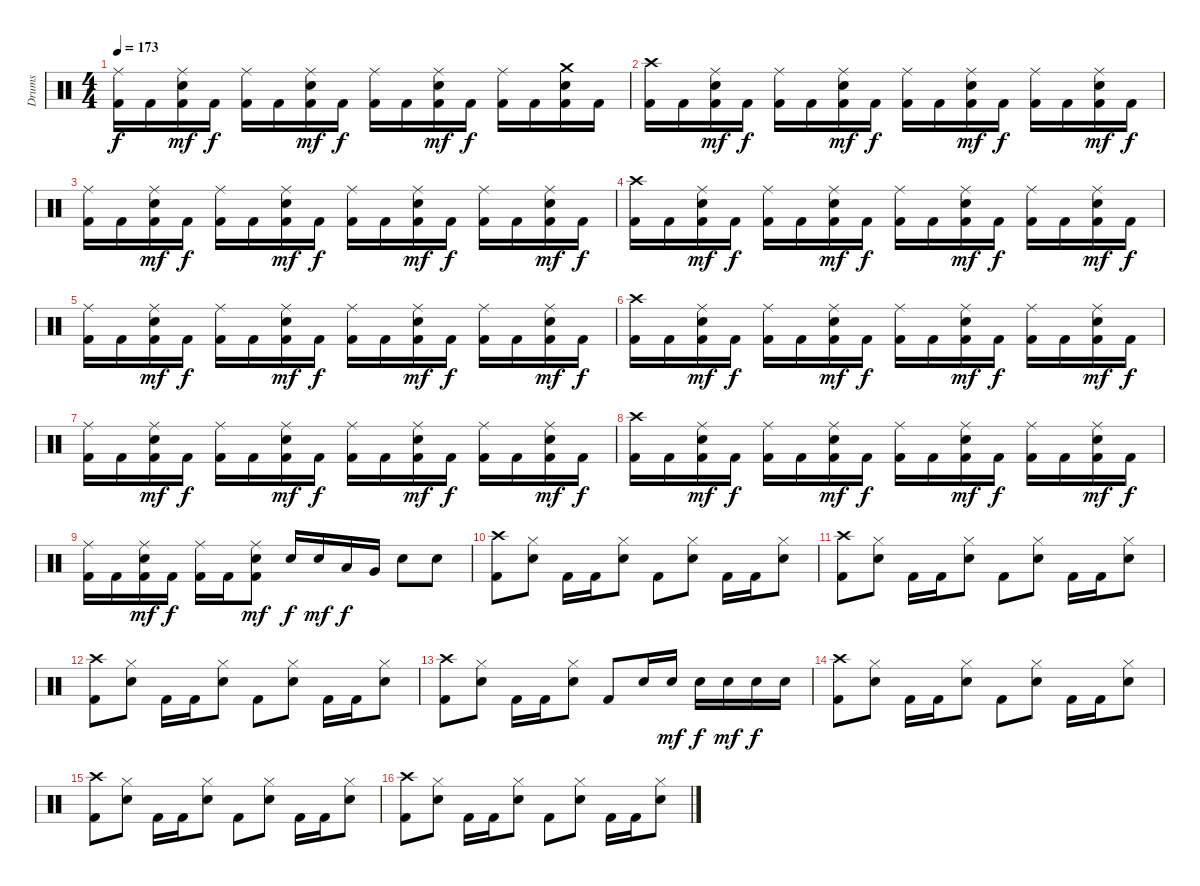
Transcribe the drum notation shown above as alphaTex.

\track ("Drums" "Drums") {instrument percussion}
\staff {score}
\articulation defaults
\ts (4 4)
\tempo 173
\clef neutral
\ks c
("Kick (hit) 2" "Ride (middle)").16{dy f} "Kick (hit) 2".16 ("Kick (hit) 2" "Ride (middle)" "Electric Snare (hit)").16{dy mf} "Kick (hit) 2".16{dy f} ("Kick (hit) 2" "Ride (middle)").16 "Kick (hit) 2".16 ("Kick (hit) 2" "Ride (middle)" "Electric Snare (hit)").16{dy mf} "Kick (hit) 2".16{dy f} ("Kick (hit) 2" "Ride (middle)").16 "Kick (hit) 2".16 ("Kick (hit) 2" "Ride (middle)" "Electric Snare (hit)").16{dy mf} "Kick (hit) 2".16{dy f} ("Kick (hit) 2" "Ride (middle)").16 "Kick (hit) 2".16 ("Kick (hit) 2" "Crash medium (hit)" "Electric Snare (hit)").16 "Kick (hit) 2".16 |
("Kick (hit) 2" "Crash high (hit)").16 "Kick (hit) 2".16 ("Kick (hit) 2" "Ride (middle)" "Electric Snare (hit)").16{dy mf} "Kick (hit) 2".16{dy f} ("Kick (hit) 2" "Ride (middle)").16 "Kick (hit) 2".16 ("Kick (hit) 2" "Ride (middle)" "Electric Snare (hit)").16{dy mf} "Kick (hit) 2".16{dy f} ("Kick (hit) 2" "Ride (middle)").16 "Kick (hit) 2".16 ("Kick (hit) 2" "Ride (middle)" "Electric Snare (hit)").16{dy mf} "Kick (hit) 2".16{dy f} ("Kick (hit) 2" "Ride (middle)").16 "Kick (hit) 2".16 ("Kick (hit) 2" "Ride (middle)" "Electric Snare (hit)").16{dy mf} "Kick (hit) 2".16{dy f} |
("Kick (hit) 2" "Ride (middle)").16 "Kick (hit) 2".16 ("Kick (hit) 2" "Ride (middle)" "Electric Snare (hit)").16{dy mf} "Kick (hit) 2".16{dy f} ("Kick (hit) 2" "Ride (middle)").16 "Kick (hit) 2".16 ("Kick (hit) 2" "Ride (middle)" "Electric Snare (hit)").16{dy mf} "Kick (hit) 2".16{dy f} ("Kick (hit) 2" "Ride (middle)").16 "Kick (hit) 2".16 ("Kick (hit) 2" "Ride (middle)" "Electric Snare (hit)").16{dy mf} "Kick (hit) 2".16{dy f} ("Kick (hit) 2" "Ride (middle)").16 "Kick (hit) 2".16 ("Kick (hit) 2" "Ride (middle)" "Electric Snare (hit)").16{dy mf} "Kick (hit) 2".16{dy f} |
("Kick (hit) 2" "Crash high (hit)").16 "Kick (hit) 2".16 ("Kick (hit) 2" "Ride (middle)" "Electric Snare (hit)").16{dy mf} "Kick (hit) 2".16{dy f} ("Kick (hit) 2" "Ride (middle)").16 "Kick (hit) 2".16 ("Kick (hit) 2" "Ride (middle)" "Electric Snare (hit)").16{dy mf} "Kick (hit) 2".16{dy f} ("Kick (hit) 2" "Ride (middle)").16 "Kick (hit) 2".16 ("Kick (hit) 2" "Ride (middle)" "Electric Snare (hit)").16{dy mf} "Kick (hit) 2".16{dy f} ("Kick (hit) 2" "Ride (middle)").16 "Kick (hit) 2".16 ("Kick (hit) 2" "Ride (middle)" "Electric Snare (hit)").16{dy mf} "Kick (hit) 2".16{dy f} |
("Kick (hit) 2" "Ride (middle)").16 "Kick (hit) 2".16 ("Kick (hit) 2" "Ride (middle)" "Electric Snare (hit)").16{dy mf} "Kick (hit) 2".16{dy f} ("Kick (hit) 2" "Ride (middle)").16 "Kick (hit) 2".16 ("Kick (hit) 2" "Ride (middle)" "Electric Snare (hit)").16{dy mf} "Kick (hit) 2".16{dy f} ("Kick (hit) 2" "Ride (middle)").16 "Kick (hit) 2".16 ("Kick (hit) 2" "Ride (middle)" "Electric Snare (hit)").16{dy mf} "Kick (hit) 2".16{dy f} ("Kick (hit) 2" "Ride (middle)").16 "Kick (hit) 2".16 ("Kick (hit) 2" "Ride (middle)" "Electric Snare (hit)").16{dy mf} "Kick (hit) 2".16{dy f} |
("Kick (hit) 2" "Crash high (hit)").16 "Kick (hit) 2".16 ("Kick (hit) 2" "Ride (middle)" "Electric Snare (hit)").16{dy mf} "Kick (hit) 2".16{dy f} ("Kick (hit) 2" "Ride (middle)").16 "Kick (hit) 2".16 ("Kick (hit) 2" "Ride (middle)" "Electric Snare (hit)").16{dy mf} "Kick (hit) 2".16{dy f} ("Kick (hit) 2" "Ride (middle)").16 "Kick (hit) 2".16 ("Kick (hit) 2" "Ride (middle)" "Electric Snare (hit)").16{dy mf} "Kick (hit) 2".16{dy f} ("Kick (hit) 2" "Ride (middle)").16 "Kick (hit) 2".16 ("Kick (hit) 2" "Ride (middle)" "Electric Snare (hit)").16{dy mf} "Kick (hit) 2".16{dy f} |
("Kick (hit) 2" "Ride (middle)").16 "Kick (hit) 2".16 ("Kick (hit) 2" "Ride (middle)" "Electric Snare (hit)").16{dy mf} "Kick (hit) 2".16{dy f} ("Kick (hit) 2" "Ride (middle)").16 "Kick (hit) 2".16 ("Kick (hit) 2" "Ride (middle)" "Electric Snare (hit)").16{dy mf} "Kick (hit) 2".16{dy f} ("Kick (hit) 2" "Ride (middle)").16 "Kick (hit) 2".16 ("Kick (hit) 2" "Ride (middle)" "Electric Snare (hit)").16{dy mf} "Kick (hit) 2".16{dy f} ("Kick (hit) 2" "Ride (middle)").16 "Kick (hit) 2".16 ("Kick (hit) 2" "Ride (middle)" "Electric Snare (hit)").16{dy mf} "Kick (hit) 2".16{dy f} |
("Kick (hit) 2" "Crash high (hit)").16 "Kick (hit) 2".16 ("Kick (hit) 2" "Ride (middle)" "Electric Snare (hit)").16{dy mf} "Kick (hit) 2".16{dy f} ("Kick (hit) 2" "Ride (middle)").16 "Kick (hit) 2".16 ("Kick (hit) 2" "Ride (middle)" "Electric Snare (hit)").16{dy mf} "Kick (hit) 2".16{dy f} ("Kick (hit) 2" "Ride (middle)").16 "Kick (hit) 2".16 ("Kick (hit) 2" "Ride (middle)" "Electric Snare (hit)").16{dy mf} "Kick (hit) 2".16{dy f} ("Kick (hit) 2" "Ride (middle)").16 "Kick (hit) 2".16 ("Kick (hit) 2" "Ride (middle)" "Electric Snare (hit)").16{dy mf} "Kick (hit) 2".16{dy f} |
("Kick (hit) 2" "Ride (middle)").16 "Kick (hit) 2".16 ("Kick (hit) 2" "Ride (middle)" "Electric Snare (hit)").16{dy mf} "Kick (hit) 2".16{dy f} ("Kick (hit) 2" "Ride (middle)").16 "Kick (hit) 2".16 ("Kick (hit) 2" "Ride (middle)" "Electric Snare (hit)").8{dy mf} "Electric Snare (hit)".16{dy f} "Electric Snare (hit)".16{dy mf} "Low Tom (hit)".16{dy f} "Very Low Tom (hit)".16 "Electric Snare (hit)".8 "Electric Snare (hit)".8 |
("Kick (hit) 2" "Crash high (hit)").8 ("Hi-Hat (closed)" "Electric Snare (hit)").8 "Kick (hit) 2".16 "Kick (hit) 2".16 ("Hi-Hat (closed)" "Electric Snare (hit)").8 "Kick (hit) 2".8 ("Hi-Hat (closed)" "Electric Snare (hit)").8 "Kick (hit) 2".16 "Kick (hit) 2".16 ("Hi-Hat (closed)" "Electric Snare (hit)").8 |
("Kick (hit) 2" "Crash high (hit)").8 ("Hi-Hat (closed)" "Electric Snare (hit)").8 "Kick (hit) 2".16 "Kick (hit) 2".16 ("Hi-Hat (closed)" "Electric Snare (hit)").8 "Kick (hit) 2".8 ("Hi-Hat (closed)" "Electric Snare (hit)").8 "Kick (hit) 2".16 "Kick (hit) 2".16 ("Hi-Hat (closed)" "Electric Snare (hit)").8 |
("Kick (hit) 2" "Crash high (hit)").8 ("Hi-Hat (closed)" "Electric Snare (hit)").8 "Kick (hit) 2".16 "Kick (hit) 2".16 ("Hi-Hat (closed)" "Electric Snare (hit)").8 "Kick (hit) 2".8 ("Hi-Hat (closed)" "Electric Snare (hit)").8 "Kick (hit) 2".16 "Kick (hit) 2".16 ("Hi-Hat (closed)" "Electric Snare (hit)").8 |
("Kick (hit) 2" "Crash high (hit)").8 ("Hi-Hat (closed)" "Electric Snare (hit)").8 "Kick (hit) 2".16 "Kick (hit) 2".16 ("Hi-Hat (closed)" "Electric Snare (hit)").8 "Kick (hit) 2".8 "Electric Snare (hit)".16 "Electric Snare (hit)".16{dy mf} "Electric Snare (hit)".16{dy f} "Electric Snare (hit)".16{dy mf} "Electric Snare (hit)".16{dy f} "Electric Snare (hit)".16 |
("Kick (hit) 2" "Crash high (hit)").8 ("Hi-Hat (closed)" "Electric Snare (hit)").8 "Kick (hit) 2".16 "Kick (hit) 2".16 ("Hi-Hat (closed)" "Electric Snare (hit)").8 "Kick (hit) 2".8 ("Hi-Hat (closed)" "Electric Snare (hit)").8 "Kick (hit) 2".16 "Kick (hit) 2".16 ("Hi-Hat (closed)" "Electric Snare (hit)").8 |
("Kick (hit) 2" "Crash high (hit)").8 ("Hi-Hat (closed)" "Electric Snare (hit)").8 "Kick (hit) 2".16 "Kick (hit) 2".16 ("Hi-Hat (closed)" "Electric Snare (hit)").8 "Kick (hit) 2".8 ("Hi-Hat (closed)" "Electric Snare (hit)").8 "Kick (hit) 2".16 "Kick (hit) 2".16 ("Hi-Hat (closed)" "Electric Snare (hit)").8 |
("Kick (hit) 2" "Crash high (hit)").8 ("Hi-Hat (closed)" "Electric Snare (hit)").8 "Kick (hit) 2".16 "Kick (hit) 2".16 ("Hi-Hat (closed)" "Electric Snare (hit)").8 "Kick (hit) 2".8 ("Hi-Hat (closed)" "Electric Snare (hit)").8 "Kick (hit) 2".16 "Kick (hit) 2".16 ("Hi-Hat (closed)" "Electric Snare (hit)").8
